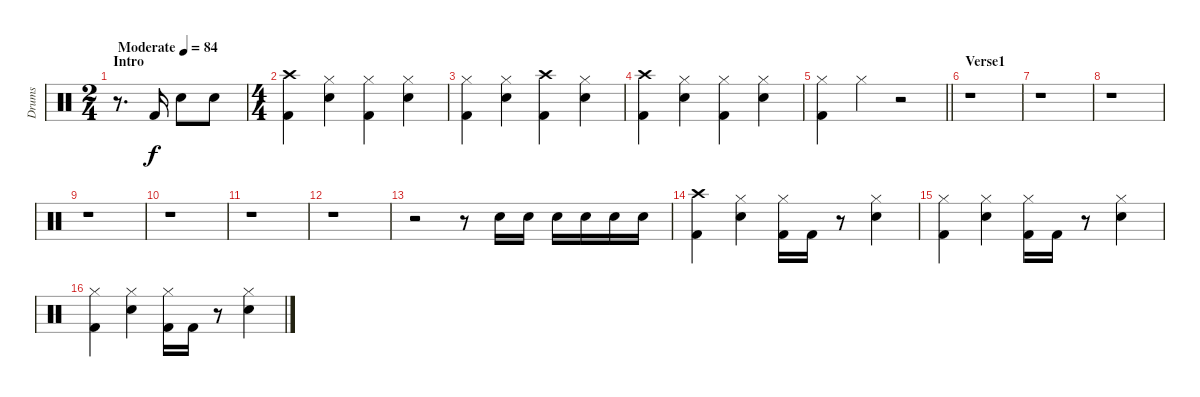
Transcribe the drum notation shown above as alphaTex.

\track ("Drums" "Drums") {instrument percussion}
\staff {score}
\articulation defaults
\ts (2 4)
\section ("" "Intro")
\tempo (84 "Moderate")
\clef neutral
\ks c
r.8{d dy f} "Kick (hit) 2".16 "Snare (hit) 2".8 "Snare (hit) 2".8 |
\ts (4 4)
("Crash high (hit)" "Kick (hit) 2").4 ("Hi-Hat (closed)" "Snare (hit) 2").4 ("Hi-Hat (closed)" "Kick (hit) 2").4 ("Hi-Hat (closed)" "Snare (hit) 2").4 |
("Hi-Hat (closed)" "Kick (hit) 2").4 ("Hi-Hat (closed)" "Snare (hit) 2").4 ("Crash high (hit)" "Kick (hit) 2").4 ("Hi-Hat (closed)" "Snare (hit) 2").4 |
("Crash high (hit)" "Kick (hit) 2").4 ("Hi-Hat (closed)" "Snare (hit) 2").4 ("Hi-Hat (closed)" "Kick (hit) 2").4 ("Hi-Hat (closed)" "Snare (hit) 2").4 |
\barLineRight lightlight
("Hi-Hat (closed)" "Kick (hit) 2").4 "Hi-Hat (closed)".4 r.2 |
\section ("" "Verse1")
r.1 |
r.1 |
r.1 |
r.1 |
r.1 |
r.1 |
r.1 |
r.2 r.8 "Snare (hit) 2".16 "Snare (hit) 2".16 "Snare (hit) 2".16 "Snare (hit) 2".16 "Snare (hit) 2".16 "Snare (hit) 2".16 |
("Crash high (hit)" "Kick (hit) 2").4 ("Hi-Hat (closed)" "Snare (hit) 2").4 ("Hi-Hat (closed)" "Kick (hit) 2").16 "Kick (hit) 2".16 r.8 ("Hi-Hat (closed)" "Snare (hit) 2").4 |
("Hi-Hat (closed)" "Kick (hit) 2").4 ("Hi-Hat (closed)" "Snare (hit) 2").4 ("Hi-Hat (closed)" "Kick (hit) 2").16 "Kick (hit) 2".16 r.8 ("Hi-Hat (closed)" "Snare (hit) 2").4 |
("Hi-Hat (closed)" "Kick (hit) 2").4 ("Hi-Hat (closed)" "Snare (hit) 2").4 ("Hi-Hat (closed)" "Kick (hit) 2").16 "Kick (hit) 2".16 r.8 ("Hi-Hat (closed)" "Snare (hit) 2").4
